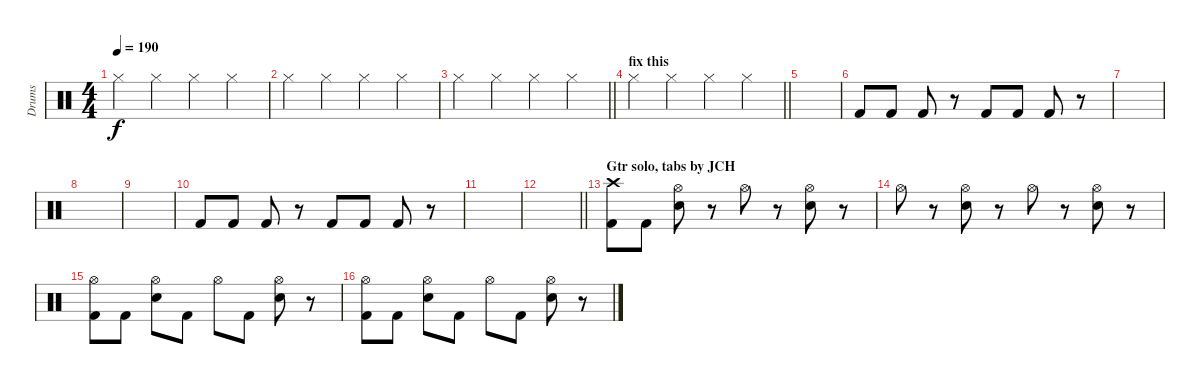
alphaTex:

\track ("Drums" "Drums") {instrument percussion}
\staff {score}
\articulation defaults
\ts (4 4)
\tempo 190
\clef neutral
\ks c "Hi-Hat (closed)".4{dy f} "Hi-Hat (closed)".4 "Hi-Hat (closed)".4 "Hi-Hat (closed)".4
|
"Hi-Hat (closed)".4 "Hi-Hat (closed)".4 "Hi-Hat (closed)".4 "Hi-Hat (closed)".4 |
\barLineRight lightlight "Hi-Hat (closed)".4 "Hi-Hat (closed)".4 "Hi-Hat (closed)".4 "Hi-Hat (closed)".4
|
\section ("" "fix this ")
\barLineRight lightlight "Hi-Hat (closed)".4 "Hi-Hat (closed)".4 "Hi-Hat (closed)".4 "Hi-Hat (closed)".4
|
|
"Kick (hit) 2".8 "Kick (hit) 2".8 "Kick (hit) 2".8 r.8 "Kick (hit) 2".8 "Kick (hit) 2".8 "Kick (hit) 2".8 r.8 |
|
|
|
"Kick (hit) 2".8 "Kick (hit) 2".8 "Kick (hit) 2".8 r.8 "Kick (hit) 2".8 "Kick (hit) 2".8 "Kick (hit) 2".8 r.8 |
|
\barLineRight lightlight
|
\section ("" "Gtr solo, tabs by JCH")
("Crash high (hit)" "Kick (hit) 2").8 "Kick (hit) 2".8 ("Hi-Hat (open)" "Electric Snare (hit)").8 r.8 "Hi-Hat (open)".8 r.8 ("Hi-Hat (open)" "Electric Snare (hit)").8 r.8 |
"Hi-Hat (open)".8 r.8 ("Hi-Hat (open)" "Electric Snare (hit)").8 r.8 "Hi-Hat (open)".8 r.8 ("Hi-Hat (open)" "Electric Snare (hit)").8 r.8 |
("Hi-Hat (open)" "Kick (hit) 2").8 "Kick (hit) 2".8 ("Hi-Hat (open)" "Electric Snare (hit)").8 "Kick (hit) 2".8 "Hi-Hat (open)".8 "Kick (hit) 2".8 ("Hi-Hat (open)" "Electric Snare (hit)").8 r.8 |
("Hi-Hat (open)" "Kick (hit) 2").8 "Kick (hit) 2".8 ("Hi-Hat (open)" "Electric Snare (hit)").8 "Kick (hit) 2".8 "Hi-Hat (open)".8 "Kick (hit) 2".8 ("Hi-Hat (open)" "Electric Snare (hit)").8 r.8
